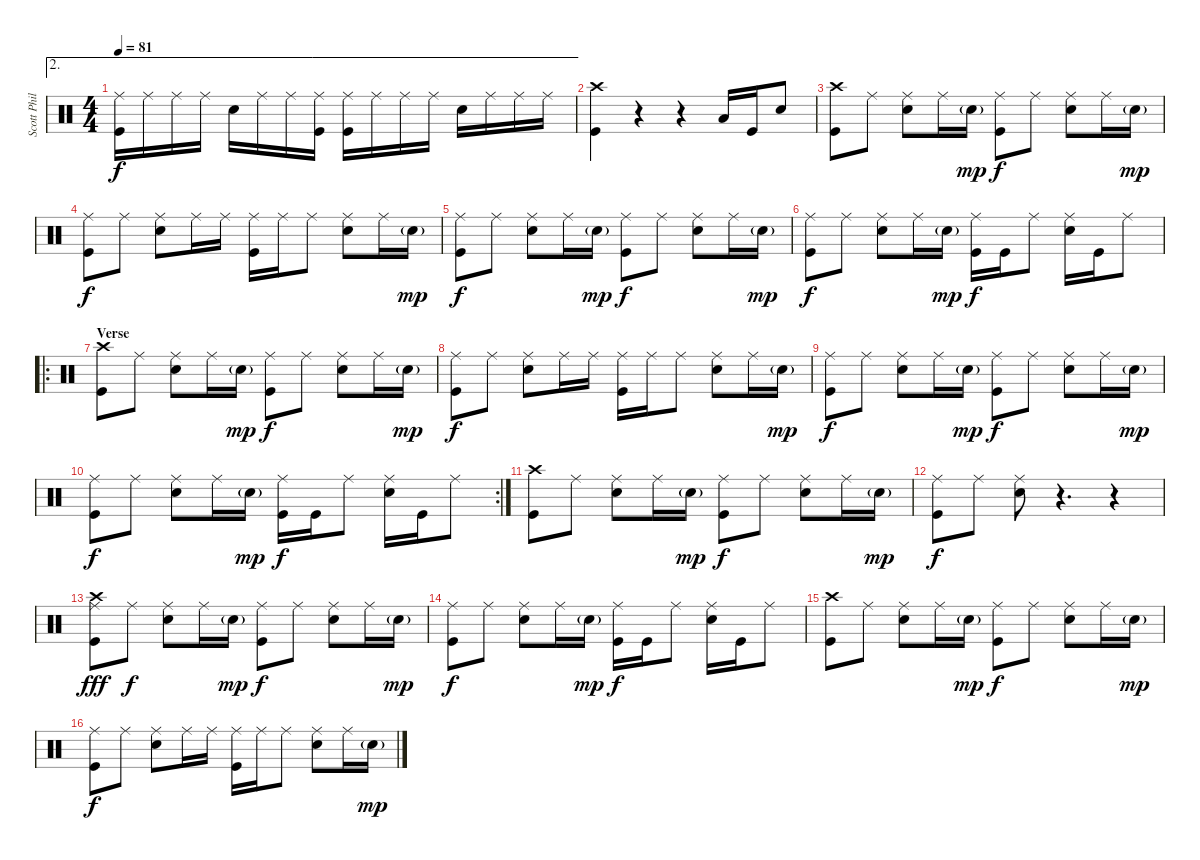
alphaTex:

\track ("Scott Phillips" "Scott Phil") {instrument percussion}
\staff {score}
\articulation defaults
\ae 2
\ts (4 4)
\tempo 81
\clef neutral
\ks c
("Ride (middle)" "Kick (hit)").16{dy f} "Ride (middle)".16 "Ride (middle)".16 "Ride (middle)".16 "Snare (hit) 2".16 "Ride (middle)".16 "Ride (middle)".16 ("Ride (middle)" "Kick (hit)").16 ("Ride (middle)" "Kick (hit)").16 "Ride (middle)".16 "Ride (middle)".16 "Ride (middle)".16 "Snare (hit) 2".16 "Ride (middle)".16 "Ride (middle)".16 "Ride (middle)".16 |
("Crash high (hit)" "Kick (hit)").4 r.4 r.4 "Low Tom (hit)".16 "Kick (hit)".16 "Snare (hit) 2".8 |
("Crash high (hit)" "Kick (hit)").8 "Ride (middle)".8 ("Ride (middle)" "Snare (hit) 2").8 "Ride (middle)".16 "Snare (hit) 2"{g}.16{dy mp} ("Ride (middle)" "Kick (hit)").8{dy f} "Ride (middle)".8 ("Ride (middle)" "Snare (hit) 2").8 "Ride (middle)".16 "Snare (hit) 2"{g}.16{dy mp} |
("Ride (middle)" "Kick (hit)").8{dy f} "Ride (middle)".8 ("Ride (middle)" "Snare (hit) 2").8 "Ride (middle)".16 "Ride (middle)".16 ("Ride (middle)" "Kick (hit)").16 "Ride (middle)".16 "Ride (middle)".8 ("Ride (middle)" "Snare (hit) 2").8 "Ride (middle)".16 "Snare (hit) 2"{g}.16{dy mp} |
("Ride (middle)" "Kick (hit)").8{dy f} "Ride (middle)".8 ("Ride (middle)" "Snare (hit) 2").8 "Ride (middle)".16 "Snare (hit) 2"{g}.16{dy mp} ("Ride (middle)" "Kick (hit)").8{dy f} "Ride (middle)".8 ("Ride (middle)" "Snare (hit) 2").8 "Ride (middle)".16 "Snare (hit) 2"{g}.16{dy mp} |
("Ride (middle)" "Kick (hit)").8{dy f} "Ride (middle)".8 ("Ride (middle)" "Snare (hit) 2").8 "Ride (middle)".16 "Snare (hit) 2"{g}.16{dy mp} ("Ride (middle)" "Kick (hit)").16{dy f} "Kick (hit)".16 "Ride (middle)".8 ("Ride (middle)" "Snare (hit) 2").16 "Kick (hit)".16 "Ride (middle)".8 |
\ro
\section ("" "Verse")
("Crash high (hit)" "Kick (hit)").8 "Ride (middle)".8 ("Ride (middle)" "Snare (hit) 2").8 "Ride (middle)".16 "Snare (hit) 2"{g}.16{dy mp} ("Ride (middle)" "Kick (hit)").8{dy f} "Ride (middle)".8 ("Ride (middle)" "Snare (hit) 2").8 "Ride (middle)".16 "Snare (hit) 2"{g}.16{dy mp} |
("Ride (middle)" "Kick (hit)").8{dy f} "Ride (middle)".8 ("Ride (middle)" "Snare (hit) 2").8 "Ride (middle)".16 "Ride (middle)".16 ("Ride (middle)" "Kick (hit)").16 "Ride (middle)".16 "Ride (middle)".8 ("Ride (middle)" "Snare (hit) 2").8 "Ride (middle)".16 "Snare (hit) 2"{g}.16{dy mp} |
("Ride (middle)" "Kick (hit)").8{dy f} "Ride (middle)".8 ("Ride (middle)" "Snare (hit) 2").8 "Ride (middle)".16 "Snare (hit) 2"{g}.16{dy mp} ("Ride (middle)" "Kick (hit)").8{dy f} "Ride (middle)".8 ("Ride (middle)" "Snare (hit) 2").8 "Ride (middle)".16 "Snare (hit) 2"{g}.16{dy mp} |
\rc 2
("Ride (middle)" "Kick (hit)").8{dy f} "Ride (middle)".8 ("Ride (middle)" "Snare (hit) 2").8 "Ride (middle)".16 "Snare (hit) 2"{g}.16{dy mp} ("Ride (middle)" "Kick (hit)").16{dy f} "Kick (hit)".16 "Ride (middle)".8 ("Ride (middle)" "Snare (hit) 2").16 "Kick (hit)".16 "Ride (middle)".8 |
("Crash high (hit)" "Kick (hit)").8 "Ride (middle)".8 ("Ride (middle)" "Snare (hit) 2").8 "Ride (middle)".16 "Snare (hit) 2"{g}.16{dy mp} ("Ride (middle)" "Kick (hit)").8{dy f} "Ride (middle)".8 ("Ride (middle)" "Snare (hit) 2").8 "Ride (middle)".16 "Snare (hit) 2"{g}.16{dy mp} |
("Ride (middle)" "Kick (hit)").8{dy f} "Ride (middle)".8 ("Ride (middle)" "Snare (hit) 2").8 r.4{d} r.4 |
("Crash high (hit)" "Ride (middle)" "Kick (hit)").8{dy fff} "Ride (middle)".8{dy f} ("Ride (middle)" "Snare (hit) 2").8 "Ride (middle)".16 "Snare (hit) 2"{g}.16{dy mp} ("Ride (middle)" "Kick (hit)").8{dy f} "Ride (middle)".8 ("Ride (middle)" "Snare (hit) 2").8 "Ride (middle)".16 "Snare (hit) 2"{g}.16{dy mp} |
("Ride (middle)" "Kick (hit)").8{dy f} "Ride (middle)".8 ("Ride (middle)" "Snare (hit) 2").8 "Ride (middle)".16 "Snare (hit) 2"{g}.16{dy mp} ("Ride (middle)" "Kick (hit)").16{dy f} "Kick (hit)".16 "Ride (middle)".8 ("Ride (middle)" "Snare (hit) 2").16 "Kick (hit)".16 "Ride (middle)".8 |
("Crash high (hit)" "Kick (hit)").8 "Ride (middle)".8 ("Ride (middle)" "Snare (hit) 2").8 "Ride (middle)".16 "Snare (hit) 2"{g}.16{dy mp} ("Ride (middle)" "Kick (hit)").8{dy f} "Ride (middle)".8 ("Ride (middle)" "Snare (hit) 2").8 "Ride (middle)".16 "Snare (hit) 2"{g}.16{dy mp} |
("Ride (middle)" "Kick (hit)").8{dy f} "Ride (middle)".8 ("Ride (middle)" "Snare (hit) 2").8 "Ride (middle)".16 "Ride (middle)".16 ("Ride (middle)" "Kick (hit)").16 "Ride (middle)".16 "Ride (middle)".8 ("Ride (middle)" "Snare (hit) 2").8 "Ride (middle)".16 "Snare (hit) 2"{g}.16{dy mp}
